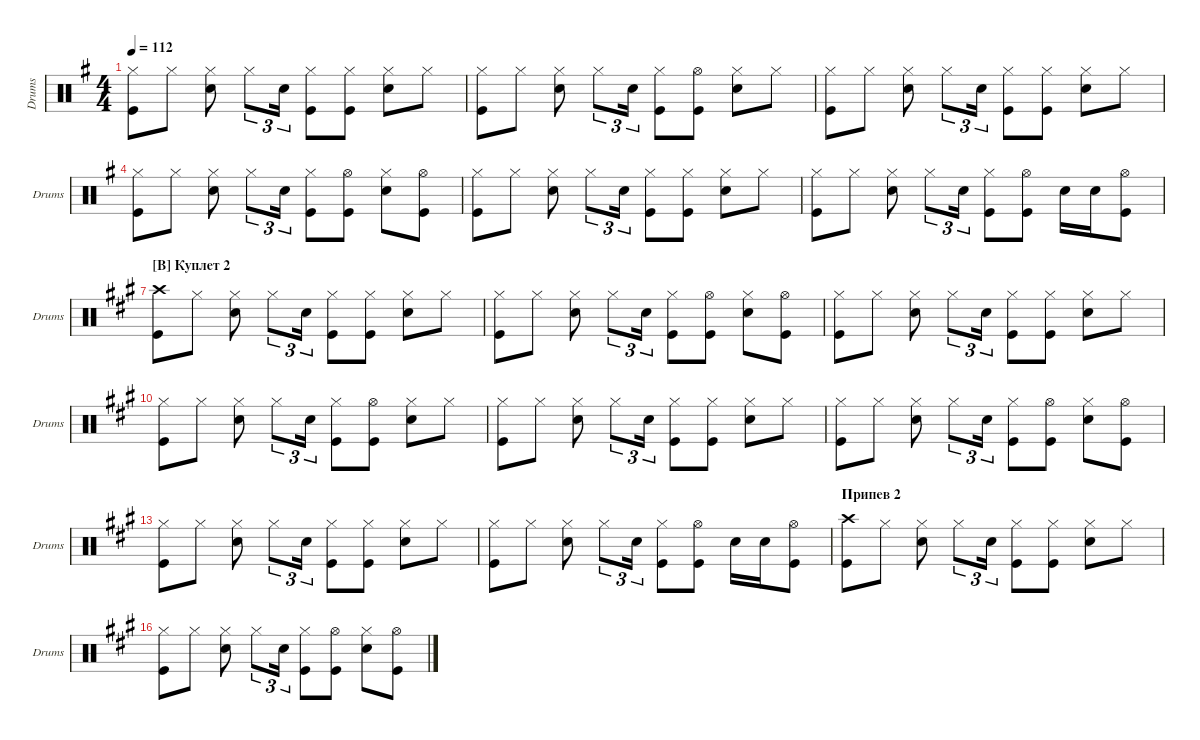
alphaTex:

\defaultSystemsLayout 4
\hideDynamics
\bracketExtendMode groupsimilarinstruments
\singleTrackTrackNamePolicy allsystems
\multiTrackTrackNamePolicy allsystems
\otherSystemsTrackNameOrientation horizontal
\defaultBarNumberDisplay FirstOfSystem
\track ("Drums" "Drums") {instrument percussion}
\staff {score}
\articulation defaults
\ts (4 4)
\tempo 112
\clef neutral
\ks eminor
("Kick (hit)" "Hi-Hat (closed)").8{dy mf} "Hi-Hat (closed)".8 ("Hi-Hat (closed)" "Snare (hit) 2").8 "Hi-Hat (closed)".8{tu (3 2)} "Snare (hit) 2".16{tu (3 2)} ("Hi-Hat (closed)" "Kick (hit)").8 ("Hi-Hat (closed)" "Kick (hit)").8 ("Hi-Hat (closed)" "Snare (hit) 2").8 "Hi-Hat (closed)".8 |
("Kick (hit)" "Hi-Hat (closed)").8 "Hi-Hat (closed)".8 ("Hi-Hat (closed)" "Snare (hit) 2").8 "Hi-Hat (closed)".8{tu (3 2)} "Snare (hit) 2".16{tu (3 2)} ("Hi-Hat (closed)" "Kick (hit)").8 ("Hi-Hat (open)" "Kick (hit)").8 ("Hi-Hat (closed)" "Snare (hit) 2").8 "Hi-Hat (closed)".8 |
("Kick (hit)" "Hi-Hat (closed)").8 "Hi-Hat (closed)".8 ("Hi-Hat (closed)" "Snare (hit) 2").8 "Hi-Hat (closed)".8{tu (3 2)} "Snare (hit) 2".16{tu (3 2)} ("Hi-Hat (closed)" "Kick (hit)").8 ("Hi-Hat (closed)" "Kick (hit)").8 ("Hi-Hat (closed)" "Snare (hit) 2").8 "Hi-Hat (closed)".8 |
("Kick (hit)" "Hi-Hat (closed)").8 "Hi-Hat (closed)".8 ("Hi-Hat (closed)" "Snare (hit) 2").8 "Hi-Hat (closed)".8{tu (3 2)} "Snare (hit) 2".16{tu (3 2)} ("Hi-Hat (closed)" "Kick (hit)").8 ("Hi-Hat (open)" "Kick (hit)").8 ("Hi-Hat (closed)" "Snare (hit) 2").8 ("Hi-Hat (open)" "Kick (hit)").8 |
("Kick (hit)" "Hi-Hat (closed)").8 "Hi-Hat (closed)".8 ("Hi-Hat (closed)" "Snare (hit) 2").8 "Hi-Hat (closed)".8{tu (3 2)} "Snare (hit) 2".16{tu (3 2)} ("Hi-Hat (closed)" "Kick (hit)").8 ("Hi-Hat (closed)" "Kick (hit)").8 ("Hi-Hat (closed)" "Snare (hit) 2").8 "Hi-Hat (closed)".8 |
("Kick (hit)" "Hi-Hat (closed)").8 "Hi-Hat (closed)".8 ("Hi-Hat (closed)" "Snare (hit) 2").8 "Hi-Hat (closed)".8{tu (3 2)} "Snare (hit) 2".16{tu (3 2)} ("Hi-Hat (closed)" "Kick (hit)").8 ("Hi-Hat (open)" "Kick (hit)").8 "Snare (hit) 2".16 "Snare (hit) 2".16 ("Hi-Hat (open)" "Kick (hit)").8 |
\section ("B" "Куплет 2")
\ks f#minor
("Kick (hit)" "Crash high (hit)").8 "Hi-Hat (closed)".8 ("Hi-Hat (closed)" "Snare (hit) 2").8 "Hi-Hat (closed)".8{tu (3 2)} "Snare (hit) 2".16{tu (3 2)} ("Hi-Hat (closed)" "Kick (hit)").8 ("Hi-Hat (closed)" "Kick (hit)").8 ("Hi-Hat (closed)" "Snare (hit) 2").8 "Hi-Hat (closed)".8 |
("Kick (hit)" "Hi-Hat (closed)").8 "Hi-Hat (closed)".8 ("Hi-Hat (closed)" "Snare (hit) 2").8 "Hi-Hat (closed)".8{tu (3 2)} "Snare (hit) 2".16{tu (3 2)} ("Hi-Hat (closed)" "Kick (hit)").8 ("Hi-Hat (open)" "Kick (hit)").8 ("Hi-Hat (closed)" "Snare (hit) 2").8 ("Hi-Hat (open)" "Kick (hit)").8 |
("Kick (hit)" "Hi-Hat (closed)").8 "Hi-Hat (closed)".8 ("Hi-Hat (closed)" "Snare (hit) 2").8 "Hi-Hat (closed)".8{tu (3 2)} "Snare (hit) 2".16{tu (3 2)} ("Hi-Hat (closed)" "Kick (hit)").8 ("Hi-Hat (closed)" "Kick (hit)").8 ("Hi-Hat (closed)" "Snare (hit) 2").8 "Hi-Hat (closed)".8 |
("Kick (hit)" "Hi-Hat (closed)").8 "Hi-Hat (closed)".8 ("Hi-Hat (closed)" "Snare (hit) 2").8 "Hi-Hat (closed)".8{tu (3 2)} "Snare (hit) 2".16{tu (3 2)} ("Hi-Hat (closed)" "Kick (hit)").8 ("Hi-Hat (open)" "Kick (hit)").8 ("Hi-Hat (closed)" "Snare (hit) 2").8 "Hi-Hat (closed)".8 |
("Kick (hit)" "Hi-Hat (closed)").8 "Hi-Hat (closed)".8 ("Hi-Hat (closed)" "Snare (hit) 2").8 "Hi-Hat (closed)".8{tu (3 2)} "Snare (hit) 2".16{tu (3 2)} ("Hi-Hat (closed)" "Kick (hit)").8 ("Hi-Hat (closed)" "Kick (hit)").8 ("Hi-Hat (closed)" "Snare (hit) 2").8 "Hi-Hat (closed)".8 |
("Kick (hit)" "Hi-Hat (closed)").8 "Hi-Hat (closed)".8 ("Hi-Hat (closed)" "Snare (hit) 2").8 "Hi-Hat (closed)".8{tu (3 2)} "Snare (hit) 2".16{tu (3 2)} ("Hi-Hat (closed)" "Kick (hit)").8 ("Hi-Hat (open)" "Kick (hit)").8 ("Hi-Hat (closed)" "Snare (hit) 2").8 ("Hi-Hat (open)" "Kick (hit)").8 |
("Kick (hit)" "Hi-Hat (closed)").8 "Hi-Hat (closed)".8 ("Hi-Hat (closed)" "Snare (hit) 2").8 "Hi-Hat (closed)".8{tu (3 2)} "Snare (hit) 2".16{tu (3 2)} ("Hi-Hat (closed)" "Kick (hit)").8 ("Hi-Hat (closed)" "Kick (hit)").8 ("Hi-Hat (closed)" "Snare (hit) 2").8 "Hi-Hat (closed)".8 |
("Kick (hit)" "Hi-Hat (closed)").8 "Hi-Hat (closed)".8 ("Hi-Hat (closed)" "Snare (hit) 2").8 "Hi-Hat (closed)".8{tu (3 2)} "Snare (hit) 2".16{tu (3 2)} ("Hi-Hat (closed)" "Kick (hit)").8 ("Hi-Hat (open)" "Kick (hit)").8 "Snare (hit) 2".16 "Snare (hit) 2".16 ("Hi-Hat (open)" "Kick (hit)").8 |
\section ("" "Припев 2")
("Kick (hit)" "Crash high (hit)").8 "Hi-Hat (closed)".8 ("Hi-Hat (closed)" "Snare (hit) 2").8 "Hi-Hat (closed)".8{tu (3 2)} "Snare (hit) 2".16{tu (3 2)} ("Hi-Hat (closed)" "Kick (hit)").8 ("Hi-Hat (closed)" "Kick (hit)").8 ("Hi-Hat (closed)" "Snare (hit) 2").8 "Hi-Hat (closed)".8 |
("Kick (hit)" "Hi-Hat (closed)").8 "Hi-Hat (closed)".8 ("Hi-Hat (closed)" "Snare (hit) 2").8 "Hi-Hat (closed)".8{tu (3 2)} "Snare (hit) 2".16{tu (3 2)} ("Hi-Hat (closed)" "Kick (hit)").8 ("Hi-Hat (open)" "Kick (hit)").8 ("Hi-Hat (closed)" "Snare (hit) 2").8 ("Hi-Hat (open)" "Kick (hit)").8
